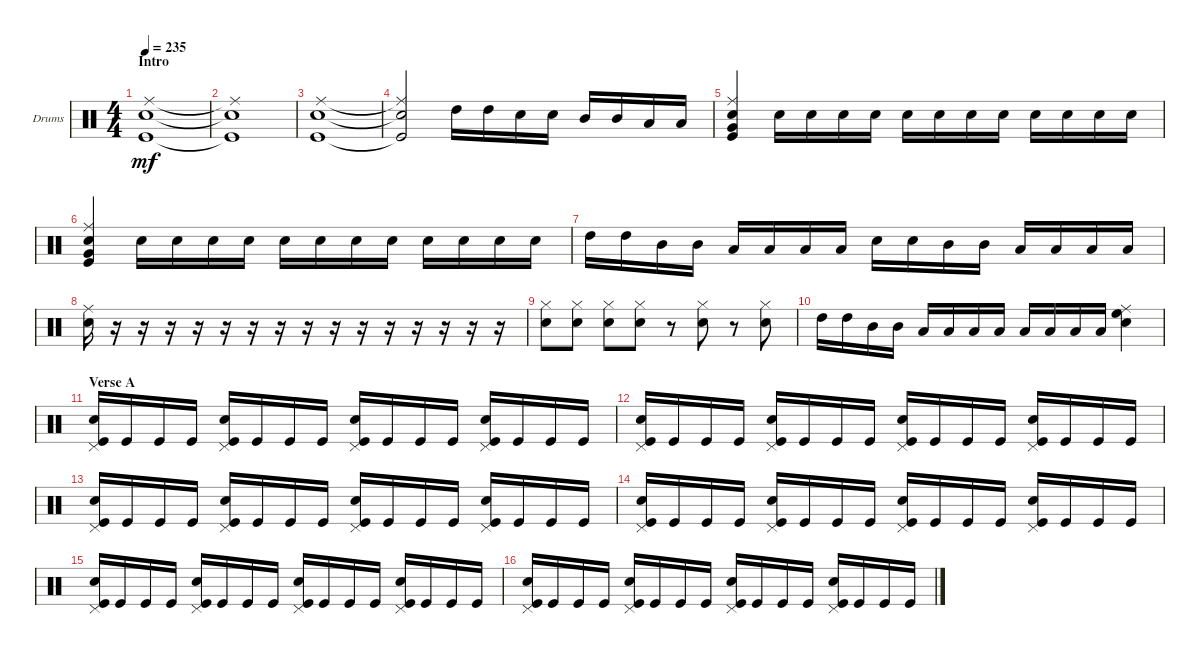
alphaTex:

\defaultSystemsLayout 4
\bracketExtendMode groupsimilarinstruments
\firstSystemTrackNameOrientation horizontal
\otherSystemsTrackNameOrientation horizontal
\track ("Drumkit" "Drums") {instrument percussion}
\staff {score}
\articulation defaults
\ts (4 4)
\section ("" "Intro")
\tempo 235
\clef neutral
\scale
0.474178
\ks c
("Kick (hit)" "Ride (middle)" "Snare (hit) 2").1{dy mf} |
\scale
0.262911 ("Kick (hit)"{t} "Ride (middle)"{t} "Snare (hit) 2"{t}).1 |
\scale
0.262911 ("Kick (hit)" "Ride (middle)" "Snare (hit) 2").1 |
\scale
0.333333 ("Kick (hit)"{t} "Ride (middle)"{t} "Snare (hit) 2"{t}).2 "High Tom (hit)".16 "High Tom (hit)".16 "Snare (hit) 2".16 "Snare (hit) 2".16 "Mid Tom (hit)".16 "Mid Tom (hit)".16 "Low Tom (hit)".16 "Low Tom (hit)".16 |
\scale
0.333333 ("Kick (hit)" "Ride (middle)" "Snare (hit) 2" "Very Low Tom (hit)").4 "Snare (hit) 2".16 "Snare (hit) 2".16 "Snare (hit) 2".16 "Snare (hit) 2".16 "Snare (hit) 2".16 "Snare (hit) 2".16 "Snare (hit) 2".16 "Snare (hit) 2".16 "Snare (hit) 2".16 "Snare (hit) 2".16 "Snare (hit) 2".16 "Snare (hit) 2".16 |
\scale
0.333333 ("Kick (hit)" "Ride (middle)" "Snare (hit) 2" "Very Low Tom (hit)").4 "Snare (hit) 2".16 "Snare (hit) 2".16 "Snare (hit) 2".16 "Snare (hit) 2".16 "Snare (hit) 2".16 "Snare (hit) 2".16 "Snare (hit) 2".16 "Snare (hit) 2".16 "Snare (hit) 2".16 "Snare (hit) 2".16 "Snare (hit) 2".16 "Snare (hit) 2".16 |
\scale
0.333333 "High Tom (hit)".16 "High Tom (hit)".16 "Mid Tom (hit)".16 "Mid Tom (hit)".16 "Low Tom (hit)".16 "Low Tom (hit)".16 "Low Tom (hit)".16 "Low Tom (hit)".16 "Snare (hit) 2".16 "Snare (hit) 2".16 "Mid Tom (hit)".16 "Mid Tom (hit)".16 "Low Tom (hit)".16 "Low Tom (hit)".16 "Low Tom (hit)".16 "Low Tom (hit)".16 |
\scale
0.333333 ("Snare (hit) 2" "Ride (middle)").16 r.16 r.16 r.16 r.16 r.16 r.16 r.16 r.16 r.16 r.16 r.16 r.16 r.16 r.16 r.16 |
\scale
0.333333 ("Snare (hit) 2" "Hi-Hat (closed)").8 ("Snare (hit) 2" "Hi-Hat (closed)").8 ("Snare (hit) 2" "Hi-Hat (closed)").8 ("Snare (hit) 2" "Hi-Hat (closed)").8 r.8 ("Snare (hit) 2" "Hi-Hat (closed)").8 r.8 ("Snare (hit) 2" "Hi-Hat (closed)").8 |
\scale
0.333333 "High Tom (hit)".16 "High Tom (hit)".16 "Mid Tom (hit)".16 "Mid Tom (hit)".16 "Low Tom (hit)".16 "Low Tom (hit)".16 "Low Tom (hit)".16 "Low Tom (hit)".16 "Low Tom (hit)".16 "Low Tom (hit)".16 "Low Tom (hit)".16 "Low Tom (hit)".16 ("Snare (hit) 2" "High Floor Tom (hit)" "Ride (middle)").4 |
\section ("" "Verse A")
\scale
0.333333 ("Kick (hit)" "Pedal Hi-Hat (hit)" "Snare (hit) 2").16 "Kick (hit)".16 "Kick (hit)".16 "Kick (hit)".16 ("Kick (hit)" "Pedal Hi-Hat (hit)" "Snare (hit) 2").16 "Kick (hit)".16 "Kick (hit)".16 "Kick (hit)".16 ("Kick (hit)" "Pedal Hi-Hat (hit)" "Snare (hit) 2").16 "Kick (hit)".16 "Kick (hit)".16 "Kick (hit)".16 ("Kick (hit)" "Pedal Hi-Hat (hit)" "Snare (hit) 2").16 "Kick (hit)".16 "Kick (hit)".16 "Kick (hit)".16 |
\scale
0.333333 ("Kick (hit)" "Pedal Hi-Hat (hit)" "Snare (hit) 2").16 "Kick (hit)".16 "Kick (hit)".16 "Kick (hit)".16 ("Kick (hit)" "Pedal Hi-Hat (hit)" "Snare (hit) 2").16 "Kick (hit)".16 "Kick (hit)".16 "Kick (hit)".16 ("Kick (hit)" "Pedal Hi-Hat (hit)" "Snare (hit) 2").16 "Kick (hit)".16 "Kick (hit)".16 "Kick (hit)".16 ("Kick (hit)" "Pedal Hi-Hat (hit)" "Snare (hit) 2").16 "Kick (hit)".16 "Kick (hit)".16 "Kick (hit)".16 |
\scale
0.333333 ("Kick (hit)" "Pedal Hi-Hat (hit)" "Snare (hit) 2").16 "Kick (hit)".16 "Kick (hit)".16 "Kick (hit)".16 ("Kick (hit)" "Pedal Hi-Hat (hit)" "Snare (hit) 2").16 "Kick (hit)".16 "Kick (hit)".16 "Kick (hit)".16 ("Kick (hit)" "Pedal Hi-Hat (hit)" "Snare (hit) 2").16 "Kick (hit)".16 "Kick (hit)".16 "Kick (hit)".16 ("Kick (hit)" "Pedal Hi-Hat (hit)" "Snare (hit) 2").16 "Kick (hit)".16 "Kick (hit)".16 "Kick (hit)".16 |
\scale
0.333333 ("Kick (hit)" "Pedal Hi-Hat (hit)" "Snare (hit) 2").16 "Kick (hit)".16 "Kick (hit)".16 "Kick (hit)".16 ("Kick (hit)" "Pedal Hi-Hat (hit)" "Snare (hit) 2").16 "Kick (hit)".16 "Kick (hit)".16 "Kick (hit)".16 ("Kick (hit)" "Pedal Hi-Hat (hit)" "Snare (hit) 2").16 "Kick (hit)".16 "Kick (hit)".16 "Kick (hit)".16 ("Kick (hit)" "Pedal Hi-Hat (hit)" "Snare (hit) 2").16 "Kick (hit)".16 "Kick (hit)".16 "Kick (hit)".16 |
\scale
0.333333 ("Kick (hit)" "Pedal Hi-Hat (hit)" "Snare (hit) 2").16 "Kick (hit)".16 "Kick (hit)".16 "Kick (hit)".16 ("Kick (hit)" "Pedal Hi-Hat (hit)" "Snare (hit) 2").16 "Kick (hit)".16 "Kick (hit)".16 "Kick (hit)".16 ("Kick (hit)" "Pedal Hi-Hat (hit)" "Snare (hit) 2").16 "Kick (hit)".16 "Kick (hit)".16 "Kick (hit)".16 ("Kick (hit)" "Pedal Hi-Hat (hit)" "Snare (hit) 2").16 "Kick (hit)".16 "Kick (hit)".16 "Kick (hit)".16 |
\scale
0.333333 ("Kick (hit)" "Pedal Hi-Hat (hit)" "Snare (hit) 2").16 "Kick (hit)".16 "Kick (hit)".16 "Kick (hit)".16 ("Kick (hit)" "Pedal Hi-Hat (hit)" "Snare (hit) 2").16 "Kick (hit)".16 "Kick (hit)".16 "Kick (hit)".16 ("Kick (hit)" "Pedal Hi-Hat (hit)" "Snare (hit) 2").16 "Kick (hit)".16 "Kick (hit)".16 "Kick (hit)".16 ("Kick (hit)" "Pedal Hi-Hat (hit)" "Snare (hit) 2").16 "Kick (hit)".16 "Kick (hit)".16 "Kick (hit)".16
